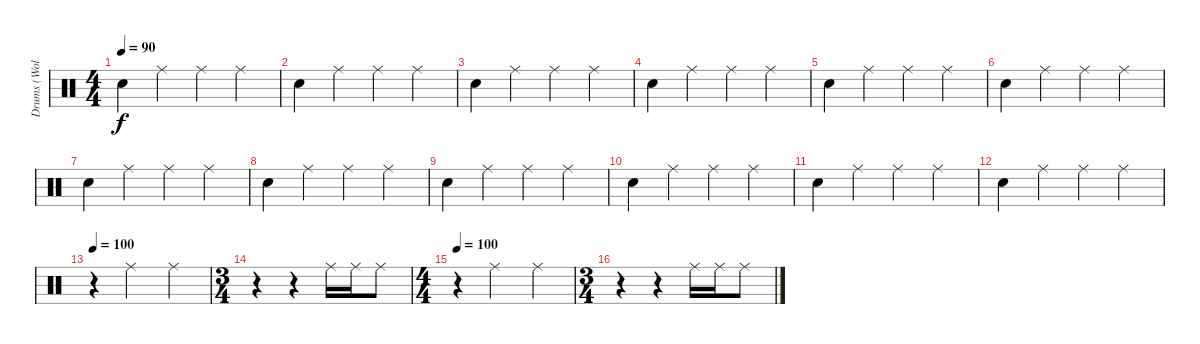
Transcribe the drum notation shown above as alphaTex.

\track ("Drums (Wolf Simons)" "Drums (Wol") {instrument percussion}
\staff {score}
\articulation defaults
\ts (4 4)
\tempo 90
\clef neutral
\ks c "Snare (hit) 2".4{dy f} "Ride (middle)".4 "Ride (middle)".4 "Ride (middle)".4
|
"Snare (hit) 2".4 "Ride (middle)".4 "Ride (middle)".4 "Ride (middle)".4 |
"Snare (hit) 2".4 "Ride (middle)".4 "Ride (middle)".4 "Ride (middle)".4 |
"Snare (hit) 2".4 "Ride (middle)".4 "Ride (middle)".4 "Ride (middle)".4 |
"Snare (hit) 2".4 "Ride (middle)".4 "Ride (middle)".4 "Ride (middle)".4 |
"Snare (hit) 2".4 "Ride (middle)".4 "Ride (middle)".4 "Ride (middle)".4 |
"Snare (hit) 2".4 "Ride (middle)".4 "Ride (middle)".4 "Ride (middle)".4 |
"Snare (hit) 2".4 "Ride (middle)".4 "Ride (middle)".4 "Ride (middle)".4 |
"Snare (hit) 2".4 "Ride (middle)".4 "Ride (middle)".4 "Ride (middle)".4 |
"Snare (hit) 2".4 "Ride (middle)".4 "Ride (middle)".4 "Ride (middle)".4 |
"Snare (hit) 2".4 "Ride (middle)".4 "Ride (middle)".4 "Ride (middle)".4 |
"Snare (hit) 2".4 "Ride (middle)".4 "Ride (middle)".4 "Ride (middle)".4 |
\tempo 100
r.4 "Ride (middle)".2 "Ride (middle)".4 |
\ts (3 4)
r.4 r.4 "Ride (middle)".16 "Ride (middle)".16 "Ride (middle)".8 |
\ts (4 4)
\tempo 100
r.4 "Ride (middle)".2 "Ride (middle)".4 |
\ts (3 4)
r.4 r.4 "Ride (middle)".16 "Ride (middle)".16 "Ride (middle)".8
